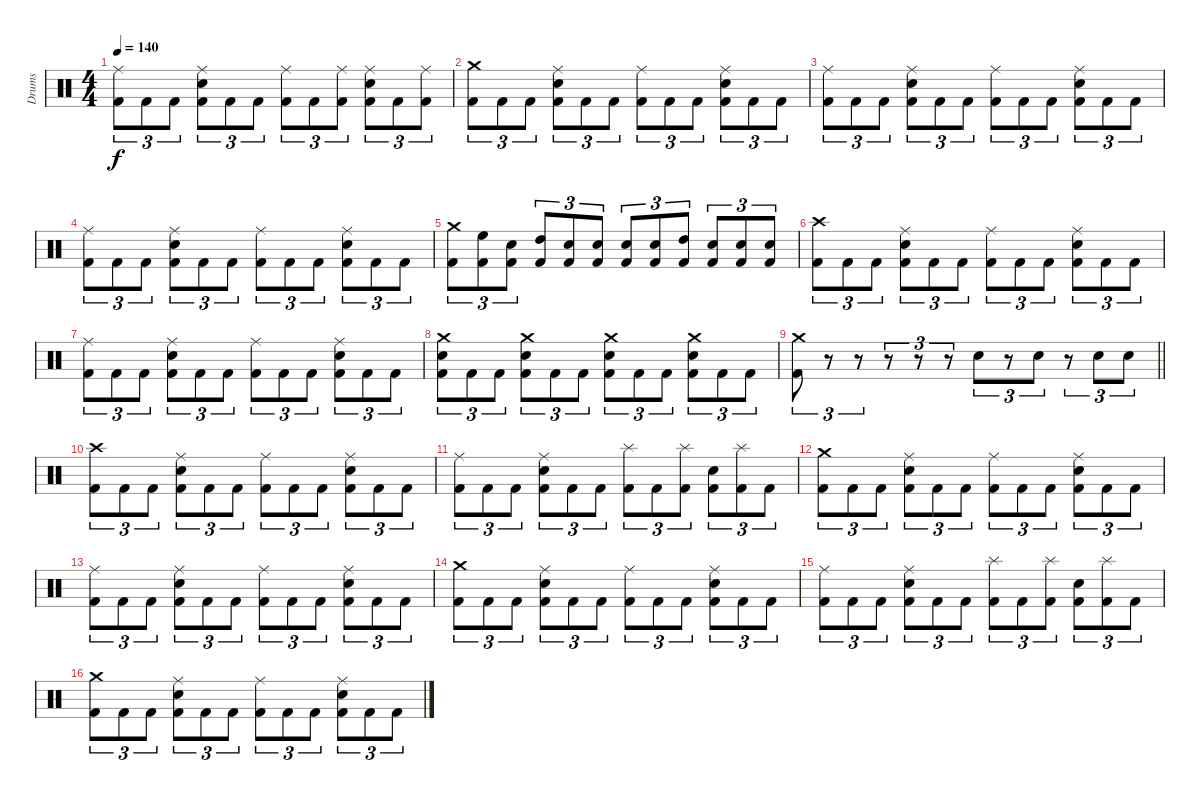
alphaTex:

\track ("Drums" "Drums") {instrument percussion}
\staff {score}
\articulation defaults
\ts (4 4)
\tempo 140
\clef neutral
\ks c
("Ride (middle)" "Kick (hit) 2").8{tu (3 2) dy f} "Kick (hit) 2".8{tu (3 2)} "Kick (hit) 2".8{tu (3 2)} ("Ride (middle)" "Snare (hit) 2" "Kick (hit) 2").8{tu (3 2)} "Kick (hit) 2".8{tu (3 2)} "Kick (hit) 2".8{tu (3 2)} ("Ride (middle)" "Kick (hit) 2").8{tu (3 2)} "Kick (hit) 2".8{tu (3 2)} ("Ride (middle)" "Kick (hit) 2").8{tu (3 2)} ("Ride (middle)" "Snare (hit) 2" "Kick (hit) 2").8{tu (3 2)} "Kick (hit) 2".8{tu (3 2)} ("Ride (middle)" "Kick (hit) 2").8{tu (3 2)} |
("Crash medium (hit)" "Kick (hit) 2").8{tu (3 2)} "Kick (hit) 2".8{tu (3 2)} "Kick (hit) 2".8{tu (3 2)} ("Ride (middle)" "Snare (hit) 2" "Kick (hit) 2").8{tu (3 2)} "Kick (hit) 2".8{tu (3 2)} "Kick (hit) 2".8{tu (3 2)} ("Ride (middle)" "Kick (hit) 2").8{tu (3 2)} "Kick (hit) 2".8{tu (3 2)} "Kick (hit) 2".8{tu (3 2)} ("Ride (middle)" "Snare (hit) 2" "Kick (hit) 2").8{tu (3 2)} "Kick (hit) 2".8{tu (3 2)} "Kick (hit) 2".8{tu (3 2)} |
("Ride (middle)" "Kick (hit) 2").8{tu (3 2)} "Kick (hit) 2".8{tu (3 2)} "Kick (hit) 2".8{tu (3 2)} ("Ride (middle)" "Snare (hit) 2" "Kick (hit) 2").8{tu (3 2)} "Kick (hit) 2".8{tu (3 2)} "Kick (hit) 2".8{tu (3 2)} ("Ride (middle)" "Kick (hit) 2").8{tu (3 2)} "Kick (hit) 2".8{tu (3 2)} "Kick (hit) 2".8{tu (3 2)} ("Ride (middle)" "Snare (hit) 2" "Kick (hit) 2").8{tu (3 2)} "Kick (hit) 2".8{tu (3 2)} "Kick (hit) 2".8{tu (3 2)} |
("Ride (middle)" "Kick (hit) 2").8{tu (3 2)} "Kick (hit) 2".8{tu (3 2)} "Kick (hit) 2".8{tu (3 2)} ("Ride (middle)" "Snare (hit) 2" "Kick (hit) 2").8{tu (3 2)} "Kick (hit) 2".8{tu (3 2)} "Kick (hit) 2".8{tu (3 2)} ("Ride (middle)" "Kick (hit) 2").8{tu (3 2)} "Kick (hit) 2".8{tu (3 2)} "Kick (hit) 2".8{tu (3 2)} ("Ride (middle)" "Snare (hit) 2" "Kick (hit) 2").8{tu (3 2)} "Kick (hit) 2".8{tu (3 2)} "Kick (hit) 2".8{tu (3 2)} |
("Crash medium (hit)" "Kick (hit) 2").8{tu (3 2)} ("High Floor Tom (hit)" "Kick (hit) 2").8{tu (3 2)} ("Snare (hit) 2" "Kick (hit) 2").8{tu (3 2)} ("High Tom (hit)" "Kick (hit) 2").8{tu (3 2)} ("Snare (hit) 2" "Kick (hit) 2").8{tu (3 2)} ("Snare (hit) 2" "Kick (hit) 2").8{tu (3 2)} ("Snare (hit) 2" "Kick (hit) 2").8{tu (3 2)} ("Snare (hit) 2" "Kick (hit) 2").8{tu (3 2)} ("High Tom (hit)" "Kick (hit) 2").8{tu (3 2)} ("Snare (hit) 2" "Kick (hit) 2").8{tu (3 2)} ("Snare (hit) 2" "Kick (hit) 2").8{tu (3 2)} ("Snare (hit) 2" "Kick (hit) 2").8{tu (3 2)} |
("Crash high (hit)" "Kick (hit) 2").8{tu (3 2)} "Kick (hit) 2".8{tu (3 2)} "Kick (hit) 2".8{tu (3 2)} ("Ride (middle)" "Snare (hit) 2" "Kick (hit) 2").8{tu (3 2)} "Kick (hit) 2".8{tu (3 2)} "Kick (hit) 2".8{tu (3 2)} ("Ride (middle)" "Kick (hit) 2").8{tu (3 2)} "Kick (hit) 2".8{tu (3 2)} "Kick (hit) 2".8{tu (3 2)} ("Ride (middle)" "Snare (hit) 2" "Kick (hit) 2").8{tu (3 2)} "Kick (hit) 2".8{tu (3 2)} "Kick (hit) 2".8{tu (3 2)} |
("Ride (middle)" "Kick (hit) 2").8{tu (3 2)} "Kick (hit) 2".8{tu (3 2)} "Kick (hit) 2".8{tu (3 2)} ("Ride (middle)" "Snare (hit) 2" "Kick (hit) 2").8{tu (3 2)} "Kick (hit) 2".8{tu (3 2)} "Kick (hit) 2".8{tu (3 2)} ("Ride (middle)" "Kick (hit) 2").8{tu (3 2)} "Kick (hit) 2".8{tu (3 2)} "Kick (hit) 2".8{tu (3 2)} ("Ride (middle)" "Snare (hit) 2" "Kick (hit) 2").8{tu (3 2)} "Kick (hit) 2".8{tu (3 2)} "Kick (hit) 2".8{tu (3 2)} |
("Crash medium (hit)" "Snare (hit) 2" "Kick (hit) 2").8{tu (3 2)} "Kick (hit) 2".8{tu (3 2)} "Kick (hit) 2".8{tu (3 2)} ("Crash medium (hit)" "Snare (hit) 2" "Kick (hit) 2").8{tu (3 2)} "Kick (hit) 2".8{tu (3 2)} "Kick (hit) 2".8{tu (3 2)} ("Crash medium (hit)" "Snare (hit) 2" "Kick (hit) 2").8{tu (3 2)} "Kick (hit) 2".8{tu (3 2)} "Kick (hit) 2".8{tu (3 2)} ("Crash medium (hit)" "Snare (hit) 2" "Kick (hit) 2").8{tu (3 2)} "Kick (hit) 2".8{tu (3 2)} "Kick (hit) 2".8{tu (3 2)} |
\barLineRight lightlight
("Crash medium (hit)" "Kick (hit) 2").8{tu (3 2)} r.8{tu (3 2)} r.8{tu (3 2)} r.8{tu (3 2)} r.8{tu (3 2)} r.8{tu (3 2)} "Snare (hit) 2".8{tu (3 2)} r.8{tu (3 2)} "Snare (hit) 2".8{tu (3 2)} r.8{tu (3 2)} "Snare (hit) 2".8{tu (3 2)} "Snare (hit) 2".8{tu (3 2)} |
\section ("" "")
("Crash high (hit)" "Kick (hit) 2").8{tu (3 2)} "Kick (hit) 2".8{tu (3 2)} "Kick (hit) 2".8{tu (3 2)} ("Ride (middle)" "Snare (hit) 2" "Kick (hit) 2").8{tu (3 2)} "Kick (hit) 2".8{tu (3 2)} "Kick (hit) 2".8{tu (3 2)} ("Ride (middle)" "Kick (hit) 2").8{tu (3 2)} "Kick (hit) 2".8{tu (3 2)} "Kick (hit) 2".8{tu (3 2)} ("Ride (middle)" "Snare (hit) 2" "Kick (hit) 2").8{tu (3 2)} "Kick (hit) 2".8{tu (3 2)} "Kick (hit) 2".8{tu (3 2)} |
("Ride (middle)" "Kick (hit) 2").8{tu (3 2)} "Kick (hit) 2".8{tu (3 2)} "Kick (hit) 2".8{tu (3 2)} ("Ride (middle)" "Snare (hit) 2" "Kick (hit) 2").8{tu (3 2)} "Kick (hit) 2".8{tu (3 2)} "Kick (hit) 2".8{tu (3 2)} ("Splash (hit)" "Kick (hit) 2").8{tu (3 2)} "Kick (hit) 2".8{tu (3 2)} ("Splash (hit)" "Kick (hit) 2").8{tu (3 2)} ("Snare (hit) 2" "Kick (hit) 2").8{tu (3 2)} ("Splash (hit)" "Kick (hit) 2").8{tu (3 2)} "Kick (hit) 2".8{tu (3 2)} |
("Crash medium (hit)" "Kick (hit) 2").8{tu (3 2)} "Kick (hit) 2".8{tu (3 2)} "Kick (hit) 2".8{tu (3 2)} ("Ride (middle)" "Snare (hit) 2" "Kick (hit) 2").8{tu (3 2)} "Kick (hit) 2".8{tu (3 2)} "Kick (hit) 2".8{tu (3 2)} ("Ride (middle)" "Kick (hit) 2").8{tu (3 2)} "Kick (hit) 2".8{tu (3 2)} "Kick (hit) 2".8{tu (3 2)} ("Ride (middle)" "Snare (hit) 2" "Kick (hit) 2").8{tu (3 2)} "Kick (hit) 2".8{tu (3 2)} "Kick (hit) 2".8{tu (3 2)} |
("Ride (middle)" "Kick (hit) 2").8{tu (3 2)} "Kick (hit) 2".8{tu (3 2)} "Kick (hit) 2".8{tu (3 2)} ("Ride (middle)" "Snare (hit) 2" "Kick (hit) 2").8{tu (3 2)} "Kick (hit) 2".8{tu (3 2)} "Kick (hit) 2".8{tu (3 2)} ("Ride (middle)" "Kick (hit) 2").8{tu (3 2)} "Kick (hit) 2".8{tu (3 2)} "Kick (hit) 2".8{tu (3 2)} ("Ride (middle)" "Snare (hit) 2" "Kick (hit) 2").8{tu (3 2)} "Kick (hit) 2".8{tu (3 2)} "Kick (hit) 2".8{tu (3 2)} |
("Crash medium (hit)" "Kick (hit) 2").8{tu (3 2)} "Kick (hit) 2".8{tu (3 2)} "Kick (hit) 2".8{tu (3 2)} ("Ride (middle)" "Snare (hit) 2" "Kick (hit) 2").8{tu (3 2)} "Kick (hit) 2".8{tu (3 2)} "Kick (hit) 2".8{tu (3 2)} ("Ride (middle)" "Kick (hit) 2").8{tu (3 2)} "Kick (hit) 2".8{tu (3 2)} "Kick (hit) 2".8{tu (3 2)} ("Ride (middle)" "Snare (hit) 2" "Kick (hit) 2").8{tu (3 2)} "Kick (hit) 2".8{tu (3 2)} "Kick (hit) 2".8{tu (3 2)} |
("Ride (middle)" "Kick (hit) 2").8{tu (3 2)} "Kick (hit) 2".8{tu (3 2)} "Kick (hit) 2".8{tu (3 2)} ("Ride (middle)" "Snare (hit) 2" "Kick (hit) 2").8{tu (3 2)} "Kick (hit) 2".8{tu (3 2)} "Kick (hit) 2".8{tu (3 2)} ("Splash (hit)" "Kick (hit) 2").8{tu (3 2)} "Kick (hit) 2".8{tu (3 2)} ("Splash (hit)" "Kick (hit) 2").8{tu (3 2)} ("Snare (hit) 2" "Kick (hit) 2").8{tu (3 2)} ("Splash (hit)" "Kick (hit) 2").8{tu (3 2)} "Kick (hit) 2".8{tu (3 2)} |
("Crash medium (hit)" "Kick (hit) 2").8{tu (3 2)} "Kick (hit) 2".8{tu (3 2)} "Kick (hit) 2".8{tu (3 2)} ("Ride (middle)" "Snare (hit) 2" "Kick (hit) 2").8{tu (3 2)} "Kick (hit) 2".8{tu (3 2)} "Kick (hit) 2".8{tu (3 2)} ("Ride (middle)" "Kick (hit) 2").8{tu (3 2)} "Kick (hit) 2".8{tu (3 2)} "Kick (hit) 2".8{tu (3 2)} ("Ride (middle)" "Snare (hit) 2" "Kick (hit) 2").8{tu (3 2)} "Kick (hit) 2".8{tu (3 2)} "Kick (hit) 2".8{tu (3 2)}
